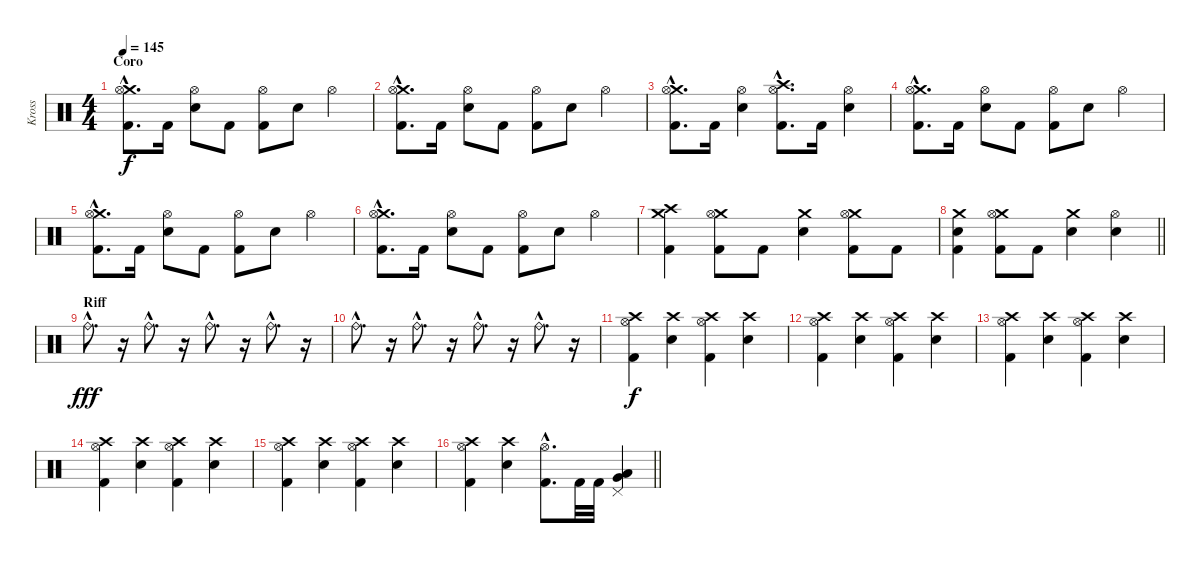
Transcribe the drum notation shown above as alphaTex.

\track ("Kross" "Kross") {instrument percussion}
\staff {score}
\articulation defaults
\ts (4 4)
\section ("" "Coro")
\tempo 145
\clef neutral
\ks c
("Crash medium (hit)"{hac} "Hi-Hat (open)"{hac} "Kick (hit) 2"{hac}).8{d dy f} "Kick (hit) 2".16 ("Hi-Hat (open)" "Electric Snare (hit)").8 "Kick (hit) 2".8 ("Hi-Hat (open)" "Kick (hit) 2").8 "Electric Snare (hit)".8 "Hi-Hat (open)".4 |
("Crash medium (hit)"{hac} "Hi-Hat (open)"{hac} "Kick (hit) 2"{hac}).8{d} "Kick (hit) 2".16 ("Hi-Hat (open)" "Electric Snare (hit)").8 "Kick (hit) 2".8 ("Hi-Hat (open)" "Kick (hit) 2").8 "Electric Snare (hit)".8 "Hi-Hat (open)".4 |
("Crash medium (hit)"{hac} "Hi-Hat (open)"{hac} "Kick (hit) 2"{hac}).8{d} "Kick (hit) 2".16 ("Hi-Hat (open)" "Electric Snare (hit)").4 ("Crash high (hit)"{hac} "Hi-Hat (open)"{hac} "Kick (hit) 2"{hac}).8{d} "Kick (hit) 2".16 ("Hi-Hat (open)" "Electric Snare (hit)").4 |
("Crash medium (hit)"{hac} "Hi-Hat (open)"{hac} "Kick (hit) 2"{hac}).8{d} "Kick (hit) 2".16 ("Hi-Hat (open)" "Electric Snare (hit)").8 "Kick (hit) 2".8 ("Hi-Hat (open)" "Kick (hit) 2").8 "Electric Snare (hit)".8 "Hi-Hat (open)".4 |
("Crash medium (hit)"{hac} "Hi-Hat (open)"{hac} "Kick (hit) 2"{hac}).8{d} "Kick (hit) 2".16 ("Hi-Hat (open)" "Electric Snare (hit)").8 "Kick (hit) 2".8 ("Hi-Hat (open)" "Kick (hit) 2").8 "Electric Snare (hit)".8 "Hi-Hat (open)".4 |
("Crash medium (hit)"{hac} "Hi-Hat (open)"{hac} "Kick (hit) 2"{hac}).8{d} "Kick (hit) 2".16 ("Hi-Hat (open)" "Electric Snare (hit)").8 "Kick (hit) 2".8 ("Hi-Hat (open)" "Kick (hit) 2").8 "Electric Snare (hit)".8 "Hi-Hat (open)".4 |
("Crash medium (hit)" "Crash high (hit)" "Kick (hit) 2").4 ("Crash medium (hit)" "Hi-Hat (open)" "Kick (hit) 2").8 "Kick (hit) 2".8 ("Crash medium (hit)" "Electric Snare (hit)").4 ("Crash medium (hit)" "Hi-Hat (open)" "Kick (hit) 2").8 "Kick (hit) 2".8 |
\barLineRight lightlight
("Crash medium (hit)" "Electric Snare (hit)" "Kick (hit) 2").4 ("Crash medium (hit)" "Hi-Hat (open)" "Kick (hit) 2").8 "Kick (hit) 2".8 ("Crash medium (hit)" "Electric Snare (hit)").4 ("Hi-Hat (open)" "Electric Snare (hit)").4 |
\section ("" "Riff")
"Ride (bell)"{hac}.8{d dy fff volume 16} r.16{volume 0} "Ride (bell)"{hac}.8{d volume 16} r.16{volume 0} "Ride (bell)"{hac}.8{d volume 16} r.16{volume 0} "Ride (bell)"{hac}.8{d volume 16} r.16{volume 0} |
"Ride (bell)"{hac}.8{d volume 16} r.16{volume 0} "Ride (bell)"{hac}.8{d volume 16} r.16{volume 0} "Ride (bell)"{hac}.8{d volume 16} r.16{volume 0} "Ride (bell)"{hac}.8{d volume 16} r.16{volume 0} |
("Crash high (hit)" "Hi-Hat (open)" "Kick (hit) 2").4{dy f volume 16} ("Crash high (hit)" "Electric Snare (hit)").4 ("Crash high (hit)" "Hi-Hat (open)" "Kick (hit) 2").4 ("Crash high (hit)" "Electric Snare (hit)").4 |
("Crash high (hit)" "Hi-Hat (open)" "Kick (hit) 2").4 ("Crash high (hit)" "Electric Snare (hit)").4 ("Crash high (hit)" "Hi-Hat (open)" "Kick (hit) 2").4 ("Crash high (hit)" "Electric Snare (hit)").4 |
("Crash high (hit)" "Hi-Hat (open)" "Kick (hit) 2").4 ("Crash high (hit)" "Electric Snare (hit)").4 ("Crash high (hit)" "Hi-Hat (open)" "Kick (hit) 2").4 ("Crash high (hit)" "Electric Snare (hit)").4 |
("Crash high (hit)" "Hi-Hat (open)" "Kick (hit) 2").4 ("Crash high (hit)" "Electric Snare (hit)").4 ("Crash high (hit)" "Hi-Hat (open)" "Kick (hit) 2").4 ("Crash high (hit)" "Electric Snare (hit)").4 |
("Crash high (hit)" "Hi-Hat (open)" "Kick (hit) 2").4 ("Crash high (hit)" "Electric Snare (hit)").4 ("Crash high (hit)" "Hi-Hat (open)" "Kick (hit) 2").4 ("Crash high (hit)" "Electric Snare (hit)").4 |
\barLineRight lightlight
("Crash high (hit)" "Hi-Hat (open)" "Kick (hit) 2").4 ("Crash high (hit)" "Electric Snare (hit)").4 ("Hi-Hat (open)"{hac} "Kick (hit) 2"{hac}).8{d} "Kick (hit) 2".32 "Kick (hit) 2".32 ("Pedal Hi-Hat (hit)" "Low Tom (hit)" "Very Low Tom (hit)").4
